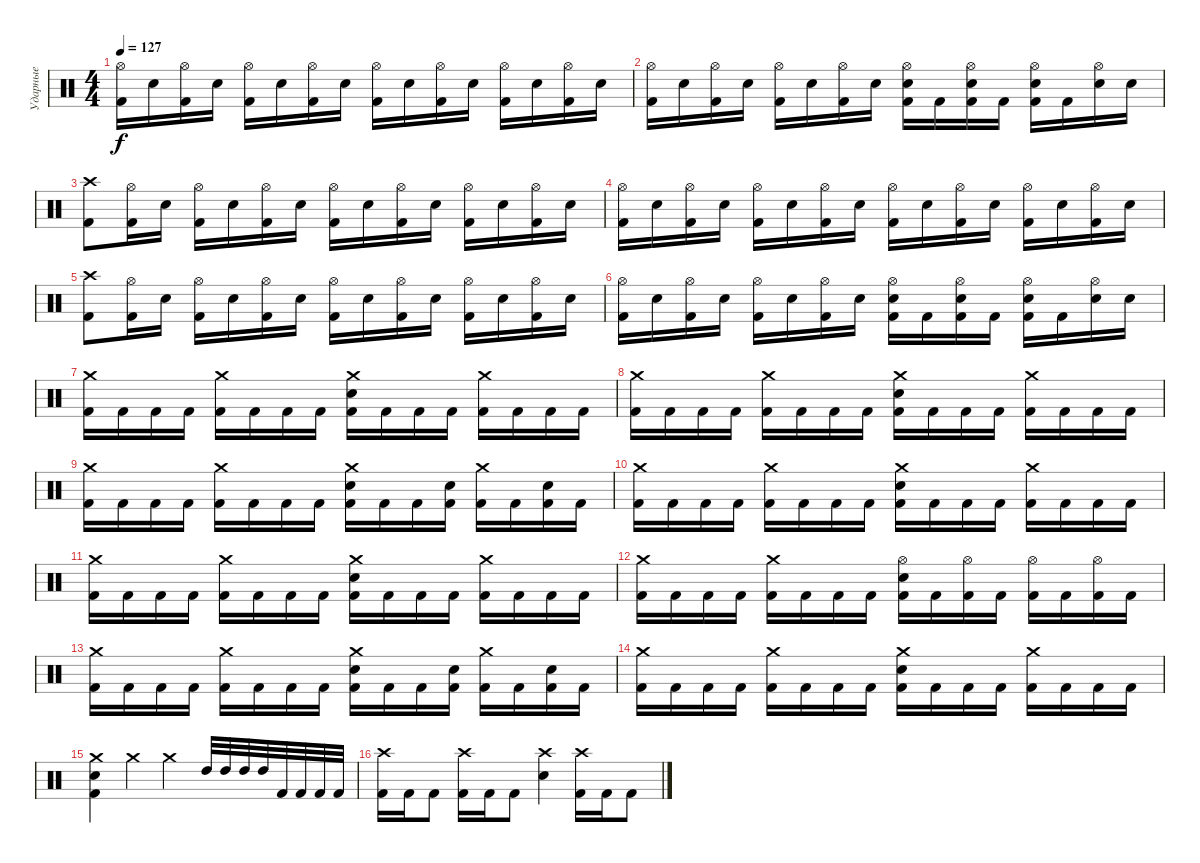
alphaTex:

\track ("Ударные" "Ударные") {instrument percussion bank 1}
\staff {score}
\articulation defaults
\ts (4 4)
\tempo 127
\clef neutral
\ks c
("Hi-Hat (open)" "Kick (hit) 2").16{dy f} "Electric Snare (hit)".16 ("Hi-Hat (open)" "Kick (hit) 2").16 "Electric Snare (hit)".16 ("Hi-Hat (open)" "Kick (hit) 2").16 "Electric Snare (hit)".16 ("Hi-Hat (open)" "Kick (hit) 2").16 "Electric Snare (hit)".16 ("Hi-Hat (open)" "Kick (hit) 2").16 "Electric Snare (hit)".16 ("Hi-Hat (open)" "Kick (hit) 2").16 "Electric Snare (hit)".16 ("Hi-Hat (open)" "Kick (hit) 2").16 "Electric Snare (hit)".16 ("Hi-Hat (open)" "Kick (hit) 2").16 "Electric Snare (hit)".16 |
("Hi-Hat (open)" "Kick (hit) 2").16 "Electric Snare (hit)".16 ("Hi-Hat (open)" "Kick (hit) 2").16 "Electric Snare (hit)".16 ("Hi-Hat (open)" "Kick (hit) 2").16 "Electric Snare (hit)".16 ("Hi-Hat (open)" "Kick (hit) 2").16 "Electric Snare (hit)".16 ("Hi-Hat (open)" "Electric Snare (hit)" "Kick (hit) 2").16 "Kick (hit) 2".16 ("Hi-Hat (open)" "Electric Snare (hit)" "Kick (hit) 2").16 "Kick (hit) 2".16 ("Hi-Hat (open)" "Electric Snare (hit)" "Kick (hit) 2").16 "Kick (hit) 2".16 ("Hi-Hat (open)" "Electric Snare (hit)").16 "Electric Snare (hit)".16 |
("Crash high (hit)" "Kick (hit) 2").8 ("Hi-Hat (open)" "Kick (hit) 2").16 "Electric Snare (hit)".16 ("Hi-Hat (open)" "Kick (hit) 2").16 "Electric Snare (hit)".16 ("Hi-Hat (open)" "Kick (hit) 2").16 "Electric Snare (hit)".16 ("Hi-Hat (open)" "Kick (hit) 2").16 "Electric Snare (hit)".16 ("Hi-Hat (open)" "Kick (hit) 2").16 "Electric Snare (hit)".16 ("Hi-Hat (open)" "Kick (hit) 2").16 "Electric Snare (hit)".16 ("Hi-Hat (open)" "Kick (hit) 2").16 "Electric Snare (hit)".16 |
("Hi-Hat (open)" "Kick (hit) 2").16 "Electric Snare (hit)".16 ("Hi-Hat (open)" "Kick (hit) 2").16 "Electric Snare (hit)".16 ("Hi-Hat (open)" "Kick (hit) 2").16 "Electric Snare (hit)".16 ("Hi-Hat (open)" "Kick (hit) 2").16 "Electric Snare (hit)".16 ("Hi-Hat (open)" "Kick (hit) 2").16 "Electric Snare (hit)".16 ("Hi-Hat (open)" "Kick (hit) 2").16 "Electric Snare (hit)".16 ("Hi-Hat (open)" "Kick (hit) 2").16 "Electric Snare (hit)".16 ("Hi-Hat (open)" "Kick (hit) 2").16 "Electric Snare (hit)".16 |
("Crash high (hit)" "Kick (hit) 2").8 ("Hi-Hat (open)" "Kick (hit) 2").16 "Electric Snare (hit)".16 ("Hi-Hat (open)" "Kick (hit) 2").16 "Electric Snare (hit)".16 ("Hi-Hat (open)" "Kick (hit) 2").16 "Electric Snare (hit)".16 ("Hi-Hat (open)" "Kick (hit) 2").16 "Electric Snare (hit)".16 ("Hi-Hat (open)" "Kick (hit) 2").16 "Electric Snare (hit)".16 ("Hi-Hat (open)" "Kick (hit) 2").16 "Electric Snare (hit)".16 ("Hi-Hat (open)" "Kick (hit) 2").16 "Electric Snare (hit)".16 |
("Hi-Hat (open)" "Kick (hit) 2").16 "Electric Snare (hit)".16 ("Hi-Hat (open)" "Kick (hit) 2").16 "Electric Snare (hit)".16 ("Hi-Hat (open)" "Kick (hit) 2").16 "Electric Snare (hit)".16 ("Hi-Hat (open)" "Kick (hit) 2").16 "Electric Snare (hit)".16 ("Hi-Hat (open)" "Electric Snare (hit)" "Kick (hit) 2").16 "Kick (hit) 2".16 ("Hi-Hat (open)" "Electric Snare (hit)" "Kick (hit) 2").16 "Kick (hit) 2".16 ("Hi-Hat (open)" "Electric Snare (hit)" "Kick (hit) 2").16 "Kick (hit) 2".16 ("Hi-Hat (open)" "Electric Snare (hit)").16 "Electric Snare (hit)".16 |
("Crash medium (hit)" "Kick (hit) 2").16 "Kick (hit) 2".16 "Kick (hit) 2".16 "Kick (hit) 2".16 ("Crash medium (hit)" "Kick (hit) 2").16 "Kick (hit) 2".16 "Kick (hit) 2".16 "Kick (hit) 2".16 ("Crash medium (hit)" "Electric Snare (hit)" "Kick (hit) 2").16 "Kick (hit) 2".16 "Kick (hit) 2".16 "Kick (hit) 2".16 ("Crash medium (hit)" "Kick (hit) 2").16 "Kick (hit) 2".16 "Kick (hit) 2".16 "Kick (hit) 2".16 |
("Crash medium (hit)" "Kick (hit) 2").16 "Kick (hit) 2".16 "Kick (hit) 2".16 "Kick (hit) 2".16 ("Crash medium (hit)" "Kick (hit) 2").16 "Kick (hit) 2".16 "Kick (hit) 2".16 "Kick (hit) 2".16 ("Crash medium (hit)" "Electric Snare (hit)" "Kick (hit) 2").16 "Kick (hit) 2".16 "Kick (hit) 2".16 "Kick (hit) 2".16 ("Crash medium (hit)" "Kick (hit) 2").16 "Kick (hit) 2".16 "Kick (hit) 2".16 "Kick (hit) 2".16 |
("Crash medium (hit)" "Kick (hit) 2").16 "Kick (hit) 2".16 "Kick (hit) 2".16 "Kick (hit) 2".16 ("Crash medium (hit)" "Kick (hit) 2").16 "Kick (hit) 2".16 "Kick (hit) 2".16 "Kick (hit) 2".16 ("Crash medium (hit)" "Electric Snare (hit)" "Kick (hit) 2").16 "Kick (hit) 2".16 "Kick (hit) 2".16 ("Electric Snare (hit)" "Kick (hit) 2").16 ("Crash medium (hit)" "Kick (hit) 2").16 "Kick (hit) 2".16 ("Electric Snare (hit)" "Kick (hit) 2").16 "Kick (hit) 2".16 |
("Crash medium (hit)" "Kick (hit) 2").16 "Kick (hit) 2".16 "Kick (hit) 2".16 "Kick (hit) 2".16 ("Crash medium (hit)" "Kick (hit) 2").16 "Kick (hit) 2".16 "Kick (hit) 2".16 "Kick (hit) 2".16 ("Crash medium (hit)" "Electric Snare (hit)" "Kick (hit) 2").16 "Kick (hit) 2".16 "Kick (hit) 2".16 "Kick (hit) 2".16 ("Crash medium (hit)" "Kick (hit) 2").16 "Kick (hit) 2".16 "Kick (hit) 2".16 "Kick (hit) 2".16 |
("Crash medium (hit)" "Kick (hit) 2").16 "Kick (hit) 2".16 "Kick (hit) 2".16 "Kick (hit) 2".16 ("Crash medium (hit)" "Kick (hit) 2").16 "Kick (hit) 2".16 "Kick (hit) 2".16 "Kick (hit) 2".16 ("Crash medium (hit)" "Electric Snare (hit)" "Kick (hit) 2").16 "Kick (hit) 2".16 "Kick (hit) 2".16 "Kick (hit) 2".16 ("Crash medium (hit)" "Kick (hit) 2").16 "Kick (hit) 2".16 "Kick (hit) 2".16 "Kick (hit) 2".16 |
("Crash medium (hit)" "Kick (hit) 2").16 "Kick (hit) 2".16 "Kick (hit) 2".16 "Kick (hit) 2".16 ("Crash medium (hit)" "Kick (hit) 2").16 "Kick (hit) 2".16 "Kick (hit) 2".16 "Kick (hit) 2".16 ("Hi-Hat (open)" "Electric Snare (hit)" "Kick (hit) 2").16 "Kick (hit) 2".16 ("Hi-Hat (open)" "Kick (hit) 2").16 "Kick (hit) 2".16 ("Hi-Hat (open)" "Kick (hit) 2").16 "Kick (hit) 2".16 ("Hi-Hat (open)" "Kick (hit) 2").16 "Kick (hit) 2".16 |
("Crash medium (hit)" "Kick (hit) 2").16 "Kick (hit) 2".16 "Kick (hit) 2".16 "Kick (hit) 2".16 ("Crash medium (hit)" "Kick (hit) 2").16 "Kick (hit) 2".16 "Kick (hit) 2".16 "Kick (hit) 2".16 ("Crash medium (hit)" "Electric Snare (hit)" "Kick (hit) 2").16 "Kick (hit) 2".16 "Kick (hit) 2".16 ("Electric Snare (hit)" "Kick (hit) 2").16 ("Crash medium (hit)" "Kick (hit) 2").16 "Kick (hit) 2".16 ("Electric Snare (hit)" "Kick (hit) 2").16 "Kick (hit) 2".16 |
("Crash medium (hit)" "Kick (hit) 2").16 "Kick (hit) 2".16 "Kick (hit) 2".16 "Kick (hit) 2".16 ("Crash medium (hit)" "Kick (hit) 2").16 "Kick (hit) 2".16 "Kick (hit) 2".16 "Kick (hit) 2".16 ("Crash medium (hit)" "Electric Snare (hit)" "Kick (hit) 2").16 "Kick (hit) 2".16 "Kick (hit) 2".16 "Kick (hit) 2".16 ("Crash medium (hit)" "Kick (hit) 2").16 "Kick (hit) 2".16 "Kick (hit) 2".16 "Kick (hit) 2".16 |
("Crash medium (hit)" "Electric Snare (hit)" "Kick (hit) 2").4 "Crash medium (hit)".4 "Crash medium (hit)".4 "High Tom (hit)".32 "High Tom (hit)".32 "High Tom (hit)".32 "High Tom (hit)".32 "Kick (hit) 2".32 "Kick (hit) 2".32 "Kick (hit) 2".32 "Kick (hit) 2".32 |
("Crash high (hit)" "Kick (hit) 2").16 "Kick (hit) 2".16 "Kick (hit) 2".8 ("Crash high (hit)" "Kick (hit) 2").16 "Kick (hit) 2".16 "Kick (hit) 2".8 ("Crash high (hit)" "Electric Snare (hit)").4 ("Crash high (hit)" "Kick (hit) 2").16 "Kick (hit) 2".16 "Kick (hit) 2".8
